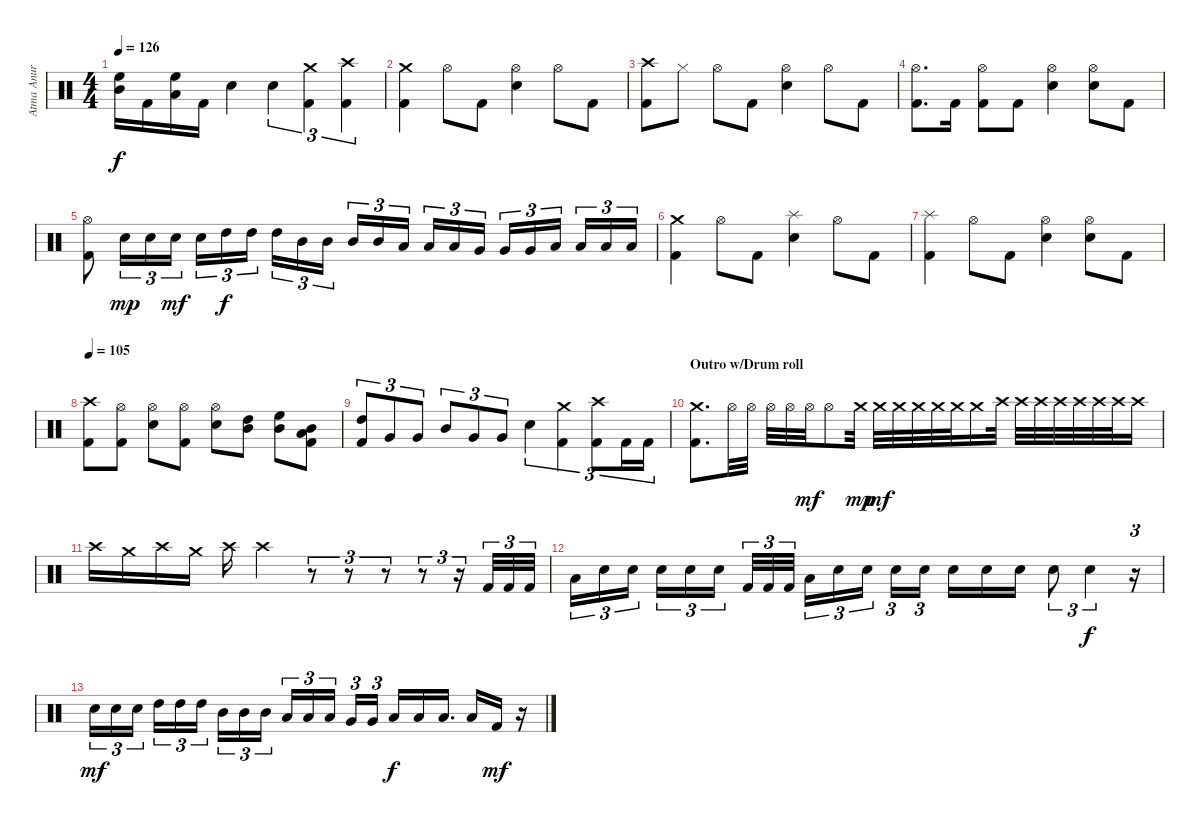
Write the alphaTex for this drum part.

\track ("Atma Anur " "Atma Anur ") {instrument percussion}
\staff {score}
\articulation defaults
\ts (4 4)
\tempo 126
\clef neutral
\ks c
("High Floor Tom (hit)" "Mid Tom (hit)").16{dy f} "Kick (hit) 2".16 ("High Floor Tom (hit)" "Low Tom (hit)").16 "Kick (hit) 2".16 "Snare (hit) 2".4 "Snare (hit) 2".4{tu (3 2)} ("Crash medium (hit)" "Kick (hit) 2").4{tu (3 2)} ("Crash high (hit)" "Kick (hit) 2").4{tu (3 2)} |
("Crash medium (hit)" "Kick (hit) 2").4 "Hi-Hat (open)".8 "Kick (hit) 2".8 ("Hi-Hat (open)" "Snare (hit) 2").4 "Hi-Hat (open)".8 "Kick (hit) 2".8 |
("Crash high (hit)" "Kick (hit) 2").8 "Hi-Hat (closed)".8 "Hi-Hat (open)".8 "Kick (hit) 2".8 ("Hi-Hat (open)" "Snare (hit) 2").4 "Hi-Hat (open)".8 "Kick (hit) 2".8 |
("Hi-Hat (open)" "Kick (hit) 2").8{d} "Kick (hit) 2".16 ("Hi-Hat (open)" "Kick (hit) 2").8 "Kick (hit) 2".8 ("Hi-Hat (open)" "Snare (hit) 2").4 ("Hi-Hat (open)" "Snare (hit) 2").8 "Kick (hit) 2".8 |
("Hi-Hat (open)" "Kick (hit) 2").8 "Snare (hit) 2".16{tu (3 2) dy mp} "Snare (hit) 2".16{tu (3 2)} "Snare (hit) 2".16{tu (3 2) dy mf} "Snare (hit) 2".16{tu (3 2)} "High Tom (hit)".16{tu (3 2) dy f} "High Tom (hit)".16{tu (3 2)} "High Tom (hit)".16{tu (3 2)} "Mid Tom (hit)".16{tu (3 2)} "Mid Tom (hit)".16{tu (3 2)} "Mid Tom (hit)".16{tu (3 2)} "Mid Tom (hit)".16{tu (3 2)} "Low Tom (hit)".16{tu (3 2)} "Low Tom (hit)".16{tu (3 2)} "Low Tom (hit)".16{tu (3 2)} "Very Low Tom (hit)".16{tu (3 2)} "Very Low Tom (hit)".16{tu (3 2)} "Very Low Tom (hit)".16{tu (3 2)} "Low Floor Tom (hit)".16{tu (3 2)} "Low Floor Tom (hit)".16{tu (3 2)} "Low Floor Tom (hit)".16{tu (3 2)} "Low Floor Tom (hit)".16{tu (3 2)} |
("Crash medium (hit)" "Kick (hit) 2").4 "Hi-Hat (open)".8 "Kick (hit) 2".8 ("Splash (hit)" "Snare (hit) 2").4 "Hi-Hat (open)".8 "Kick (hit) 2".8 |
("Splash (hit)" "Kick (hit) 2").4 "Hi-Hat (open)".8 "Kick (hit) 2".8 ("Hi-Hat (open)" "Snare (hit) 2").4 ("Hi-Hat (open)" "Snare (hit) 2").8 "Kick (hit) 2".8 |
\tempo 105
("Crash high (hit)" "Kick (hit) 2").8 ("Hi-Hat (open)" "Kick (hit) 2").8 ("Hi-Hat (open)" "Snare (hit) 2").8 ("Hi-Hat (open)" "Kick (hit) 2").8 ("Hi-Hat (open)" "Snare (hit) 2").8 ("High Tom (hit)" "Mid Tom (hit)").8 ("High Floor Tom (hit)" "Mid Tom (hit)").8 ("Mid Tom (hit)" "Low Tom (hit)" "Kick (hit) 2").8 |
("High Tom (hit)" "Kick (hit) 2").8{tu (3 2)} "Very Low Tom (hit)".8{tu (3 2)} "Very Low Tom (hit)".8{tu (3 2)} "Mid Tom (hit)".8{tu (3 2)} "Very Low Tom (hit)".8{tu (3 2)} "Very Low Tom (hit)".8{tu (3 2)} "Snare (hit) 2".4{tu (3 2)} ("Crash medium (hit)" "Kick (hit) 2").4{tu (3 2)} ("Crash high (hit)" "Kick (hit) 2").8{tu (3 2)} "Kick (hit) 2".16{tu (3 2)} "Kick (hit) 2".16{tu (3 2)} |
\section ("" "Outro w/Drum roll")
("Crash medium (hit)" "Kick (hit) 2").8{d} "Hi-Hat (open)".32 "Hi-Hat (open)".32 "Hi-Hat (open)".32 "Hi-Hat (open)".32 "Hi-Hat (open)".32{dy mf} "Hi-Hat (open)".8 "Crash medium (hit)".32{dy mp} "Crash medium (hit)".32{dy mf} "Crash medium (hit)".32 "Crash medium (hit)".32 "Crash medium (hit)".32 "Crash medium (hit)".32 "Crash medium (hit)".16 "Crash high (hit)".32 "Crash high (hit)".32 "Crash high (hit)".32 "Crash high (hit)".32 "Crash high (hit)".32 "Crash high (hit)".32 "Crash high (hit)".32 "Crash high (hit)".16 |
"Crash high (hit)".16 "Crash medium (hit)".16 "Crash high (hit)".16 "Crash medium (hit)".16 "Crash high (hit)".16 "Crash high (hit)".4 r.8{tu (3 2)} r.8{tu (3 2)} r.8{tu (3 2)} r.8{tu (3 2)} r.16{tu (3 2)} "Kick (hit) 2".32{tu (3 2)} "Kick (hit) 2".32{tu (3 2)} "Kick (hit) 2".32{tu (3 2)} |
"Low Tom (hit)".16{tu (3 2)} "Snare (hit) 2".16{tu (3 2)} "Snare (hit) 2".16{tu (3 2)} "Snare (hit) 2".16{tu (3 2)} "Snare (hit) 2".16{tu (3 2)} "Snare (hit) 2".16{tu (3 2)} "Kick (hit) 2".32{tu (3 2)} "Kick (hit) 2".32{tu (3 2)} "Kick (hit) 2".32{tu (3 2)} "Low Tom (hit)".16{tu (3 2)} "Snare (hit) 2".16{tu (3 2)} "Snare (hit) 2".16{tu (3 2)} "Snare (hit) 2".16{tu (3 2)} "Snare (hit) 2".16{tu (3 2)} "Snare (hit) 2".16 "Snare (hit) 2".16 "Snare (hit) 2".16 "Snare (hit) 2".8{tu (3 2)} "Snare (hit) 2".4{tu (3 2) dy f} r.16{tu (3 2)} |
"Snare (hit) 2".16{tu (3 2) dy mf} "Snare (hit) 2".16{tu (3 2)} "Snare (hit) 2".16{tu (3 2)} "High Tom (hit)".16{tu (3 2)} "High Tom (hit)".16{tu (3 2)} "High Tom (hit)".16{tu (3 2)} "Mid Tom (hit)".16{tu (3 2)} "Mid Tom (hit)".16{tu (3 2)} "Mid Tom (hit)".16{tu (3 2)} "Low Tom (hit)".16{tu (3 2)} "Low Tom (hit)".16{tu (3 2)} "Low Tom (hit)".16{tu (3 2)} "Very Low Tom (hit)".16{tu (3 2)} "Very Low Tom (hit)".16{tu (3 2)} "Low Floor Tom (hit)".16{dy f} "Low Floor Tom (hit)".16 "Low Floor Tom (hit)".16{d} "Low Floor Tom (hit)".16 "Kick (hit) 2".16{dy mf} r.16
